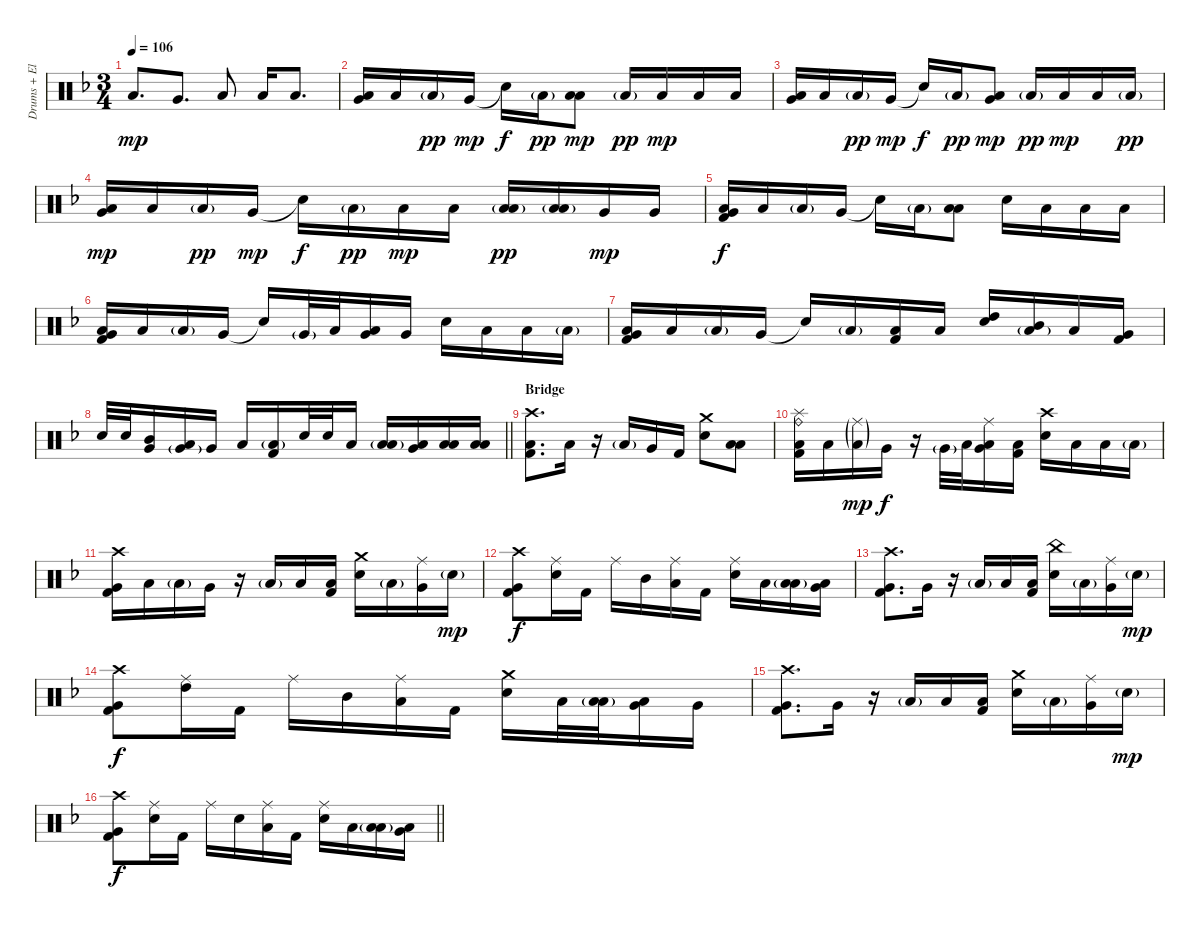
\track ("Drums + Electronic drum pads" "Drums + El") {instrument percussion}
\staff {score}
\articulation defaults
\ts (3 4)
\tempo 106
\clef neutral
\ks dminor "Low Floor Tom (hit)".8{d dy mp} "Very Low Tom (hit)".8{d} "Low Floor Tom (hit)".8 "Low Tom (hit)".16 "Low Floor Tom (hit)".8{d}
|
("Very Low Tom (hit)" "Low Floor Tom (hit)").16 "Low Floor Tom (hit)".16 "Low Floor Tom (hit)"{g}.16{dy pp} "Very Low Tom (hit)".16{dy mp} "Snare (hit)"{t}.16{dy f} "Low Floor Tom (hit)"{g}.16{dy pp} ("Low Tom (hit)" "Low Floor Tom (hit)").8{dy mp} "Low Floor Tom (hit)"{g}.16{dy pp} "Low Tom (hit)".16{dy mp} "Low Floor Tom (hit)".16 "Low Floor Tom (hit)".16 |
("Very Low Tom (hit)" "Low Floor Tom (hit)").16 "Low Floor Tom (hit)".16 "Low Floor Tom (hit)"{g}.16{dy pp} "Very Low Tom (hit)".16{dy mp} "Snare (hit)"{t}.16{dy f} "Low Floor Tom (hit)"{g}.16{dy pp} ("Very Low Tom (hit)" "Low Floor Tom (hit)").8{dy mp} "Low Floor Tom (hit)"{g}.16{dy pp} "Low Tom (hit)".16{dy mp} "Low Floor Tom (hit)".16 "Low Floor Tom (hit)"{g}.16{dy pp} |
("Very Low Tom (hit)" "Low Floor Tom (hit)").16{dy mp} "Low Floor Tom (hit)".16 "Low Floor Tom (hit)"{g}.16{dy pp} "Very Low Tom (hit)".16{dy mp} "Snare (hit)"{t}.16{dy f} "Low Floor Tom (hit)"{g}.16{dy pp} "Low Floor Tom (hit)".16{dy mp} "Low Floor Tom (hit)".16 ("Low Tom (hit)" "Low Floor Tom (hit)"{g}).16{dy pp} ("Low Tom (hit)" "Low Floor Tom (hit)"{g}).16 "Very Low Tom (hit)".16{dy mp} "Very Low Tom (hit)".16 |
("Very Low Tom (hit)" "Low Floor Tom (hit)" "Kick (hit) 2").16{dy f} "Low Floor Tom (hit)".16 "Low Floor Tom (hit)"{g}.16 "Very Low Tom (hit)".16 "Snare (hit)"{t}.16 "Low Floor Tom (hit)"{g}.16 ("Low Tom (hit)" "Low Floor Tom (hit)").8 "Snare (hit) 2".16 "Low Tom (hit)".16 "Low Floor Tom (hit)".16 "Low Floor Tom (hit)".16 |
("Very Low Tom (hit)" "Low Floor Tom (hit)" "Kick (hit) 2").16 "Low Floor Tom (hit)".16 "Low Floor Tom (hit)"{g}.16 "Very Low Tom (hit)".16 "Snare (hit)"{t}.16 "Very Low Tom (hit)"{g}.32 "Low Tom (hit)".32 ("Very Low Tom (hit)" "Low Floor Tom (hit)").16 "Very Low Tom (hit)".16 "Snare (hit) 2".16 "Low Tom (hit)".16 "Low Floor Tom (hit)".16 "Low Floor Tom (hit)"{g}.16 |
("Very Low Tom (hit)" "Low Floor Tom (hit)" "Kick (hit) 2").16 "Low Floor Tom (hit)".16 "Low Floor Tom (hit)"{g}.16 "Very Low Tom (hit)".16 "Snare (hit)"{t}.16 "Low Floor Tom (hit)"{g}.16 ("Low Floor Tom (hit)" "Kick (hit) 2").16 "Low Floor Tom (hit)".16 ("High Tom (hit)" "Snare (hit) 2").16 ("Mid Tom (hit)" "Low Floor Tom (hit)"{g}).16 "Low Tom (hit)".16 ("Very Low Tom (hit)" "Kick (hit) 2").16 |
\barLineRight lightlight "Snare (hit) 2".32 "Snare (hit) 2".32
("Mid Tom (hit)" "Very Low Tom (hit)").16 ("Low Tom (hit)" "Very Low Tom (hit)"{g}).16 "Very Low Tom (hit)".16 "Low Floor Tom (hit)".16 ("Low Floor Tom (hit)"{g} "Kick (hit) 2").16 "Snare (hit) 2".32 "Snare (hit) 2".32 "Low Tom (hit)".16 ("Low Tom (hit)" "Low Floor Tom (hit)"{g}).16 ("Very Low Tom (hit)" "Low Floor Tom (hit)").16 ("Low Floor Tom (hit)" "Low Floor Tom (hit)").16 ("Low Floor Tom (hit)" "Low Floor Tom (hit)").16 |
\section ("" "Bridge")
("Crash high (hit)" "Low Floor Tom (hit)" "Kick (hit) 2").8{d} "Low Floor Tom (hit)".16 r.16 "Low Floor Tom (hit)"{g}.16 "Very Low Tom (hit)".16 "Kick (hit) 2".16 ("Crash medium (hit)" "Snare (hit) 2").8 ("Low Tom (hit)" "Low Floor Tom (hit)").8 |
("Ride (bell)" "Splash (hit)" "Low Floor Tom (hit)" "Kick (hit) 2").16 "Low Floor Tom (hit)".16 ("Ride (middle)"{g} "Low Floor Tom (hit)"{g}).16{dy mp} "Very Low Tom (hit)".16{dy f} r.16 "Very Low Tom (hit)"{g}.32 "Low Tom (hit)".32 ("Ride (middle)" "Very Low Tom (hit)" "Low Floor Tom (hit)").16 ("Low Tom (hit)" "Kick (hit) 2").16 ("Crash high (hit)" "Snare (hit) 2").16 "Low Tom (hit)".16 "Low Floor Tom (hit)".16 "Low Floor Tom (hit)"{g}.16 |
("Crash high (hit)" "Very Low Tom (hit)" "Kick (hit) 2").16 "Low Floor Tom (hit)".16 "Low Floor Tom (hit)"{g}.16 "Very Low Tom (hit)".16 r.16 "Low Floor Tom (hit)"{g}.16 "Low Tom (hit)".16 ("Low Floor Tom (hit)" "Kick (hit) 2").16 ("Crash medium (hit)" "Snare (hit) 2").16 "Low Floor Tom (hit)"{g}.16 ("Ride (middle)" "Very Low Tom (hit)").16 "Snare (hit) 2"{g}.16{dy mp} |
("Crash high (hit)" "Very Low Tom (hit)" "Kick (hit) 2").8{dy f} ("Ride (middle)" "Snare (hit) 2").16 "Kick (hit) 2".16 "Ride (middle)".16 "Mid Tom (hit)".16 ("Ride (middle)" "Low Tom (hit)").16 "Kick (hit) 2".16 ("Ride (middle)" "Snare (hit) 2").16 "Low Tom (hit)".16 ("Low Tom (hit)" "Low Floor Tom (hit)"{g}).16 ("Very Low Tom (hit)" "Low Floor Tom (hit)").16 |
("Crash high (hit)" "Very Low Tom (hit)" "Kick (hit) 2").8{d} "Very Low Tom (hit)".16 r.16 "Low Floor Tom (hit)"{g}.16 "Low Tom (hit)".16 ("Low Floor Tom (hit)" "Kick (hit) 2").16 ("China (hit)" "Snare (hit) 2").16 "Low Floor Tom (hit)"{g}.16 ("Ride (middle)" "Very Low Tom (hit)").16 "Snare (hit) 2"{g}.16{dy mp} |
("Crash high (hit)" "Very Low Tom (hit)" "Kick (hit) 2").8{dy f} ("Ride (middle)" "High Tom (hit)").16 "Kick (hit) 2".16 "Ride (middle)".16 "Mid Tom (hit)".16 ("Ride (middle)" "Low Tom (hit)").16 "Kick (hit) 2".16 ("Crash medium (hit)" "Snare (hit) 2").16 "Low Tom (hit)".32 ("Low Tom (hit)" "Low Floor Tom (hit)"{g}).32 ("Very Low Tom (hit)" "Low Floor Tom (hit)").16 "Very Low Tom (hit)".16 |
("Crash high (hit)" "Very Low Tom (hit)" "Kick (hit) 2").8{d} "Very Low Tom (hit)".16 r.16 "Low Floor Tom (hit)"{g}.16 "Low Tom (hit)".16 ("Low Floor Tom (hit)" "Kick (hit) 2").16 ("Crash medium (hit)" "Snare (hit) 2").16 "Low Floor Tom (hit)"{g}.16 ("Ride (middle)" "Very Low Tom (hit)").16 "Snare (hit) 2"{g}.16{dy mp} |
\barLineRight lightlight
("Crash high (hit)" "Very Low Tom (hit)" "Kick (hit) 2").8{dy f} ("Ride (middle)" "Snare (hit) 2").16 "Kick (hit) 2".16 "Ride (middle)".16 "Snare (hit) 2".16 ("Ride (middle)" "Low Tom (hit)").16 "Kick (hit) 2".16 ("Ride (middle)" "Snare (hit) 2").16 "Low Tom (hit)".16 ("Low Tom (hit)" "Low Floor Tom (hit)"{g}).16 ("Very Low Tom (hit)" "Low Floor Tom (hit)").16
